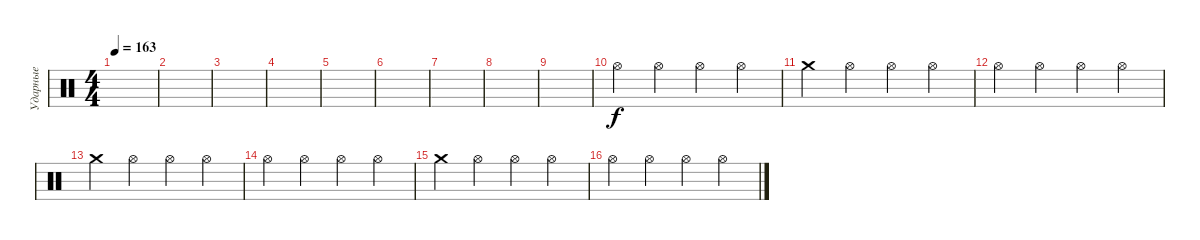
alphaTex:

\track ("Ударные" "Ударные") {instrument percussion}
\staff {score}
\articulation defaults
\ts (4 4)
\tempo 163
\clef neutral
\ks c
|
|
|
|
|
|
|
|
|
"Hi-Hat (open)".4 "Hi-Hat (open)".4 "Hi-Hat (open)".4 "Hi-Hat (open)".4 |
"Crash medium (hit)".4 "Hi-Hat (open)".4 "Hi-Hat (open)".4 "Hi-Hat (open)".4 |
"Hi-Hat (open)".4 "Hi-Hat (open)".4 "Hi-Hat (open)".4 "Hi-Hat (open)".4 |
"Crash medium (hit)".4 "Hi-Hat (open)".4 "Hi-Hat (open)".4 "Hi-Hat (open)".4 |
"Hi-Hat (open)".4 "Hi-Hat (open)".4 "Hi-Hat (open)".4 "Hi-Hat (open)".4 |
"Crash medium (hit)".4 "Hi-Hat (open)".4 "Hi-Hat (open)".4 "Hi-Hat (open)".4 |
"Hi-Hat (open)".4 "Hi-Hat (open)".4 "Hi-Hat (open)".4 "Hi-Hat (open)".4
